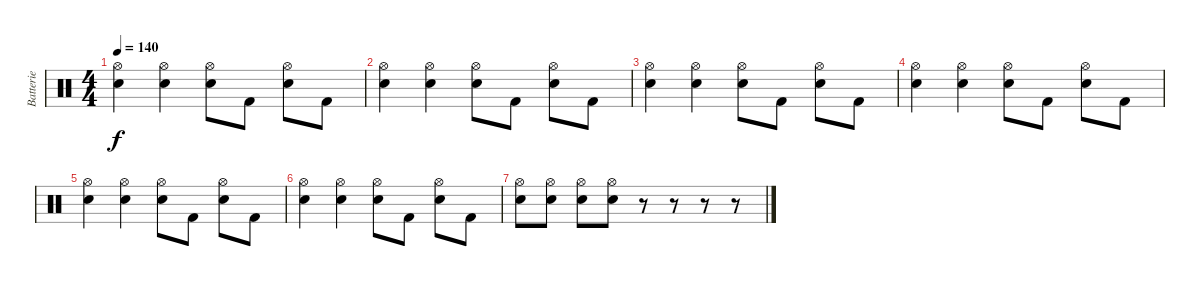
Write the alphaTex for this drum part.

\track ("Batterie" "Batterie") {instrument percussion}
\staff {score}
\articulation defaults
\ts (4 4)
\tempo 140
\clef neutral
\ks c
("Electric Snare (hit)" "Hi-Hat (open)").4{dy f} ("Electric Snare (hit)" "Hi-Hat (open)").4 ("Electric Snare (hit)" "Hi-Hat (open)").8 "Kick (hit) 2".8 ("Electric Snare (hit)" "Hi-Hat (open)").8 "Kick (hit) 2".8 |
("Electric Snare (hit)" "Hi-Hat (open)").4 ("Electric Snare (hit)" "Hi-Hat (open)").4 ("Electric Snare (hit)" "Hi-Hat (open)").8 "Kick (hit) 2".8 ("Electric Snare (hit)" "Hi-Hat (open)").8 "Kick (hit) 2".8 |
("Electric Snare (hit)" "Hi-Hat (open)").4 ("Electric Snare (hit)" "Hi-Hat (open)").4 ("Electric Snare (hit)" "Hi-Hat (open)").8 "Kick (hit) 2".8 ("Electric Snare (hit)" "Hi-Hat (open)").8 "Kick (hit) 2".8 |
("Electric Snare (hit)" "Hi-Hat (open)").4 ("Electric Snare (hit)" "Hi-Hat (open)").4 ("Electric Snare (hit)" "Hi-Hat (open)").8 "Kick (hit) 2".8 ("Electric Snare (hit)" "Hi-Hat (open)").8 "Kick (hit) 2".8 |
("Electric Snare (hit)" "Hi-Hat (open)").4 ("Electric Snare (hit)" "Hi-Hat (open)").4 ("Electric Snare (hit)" "Hi-Hat (open)").8 "Kick (hit) 2".8 ("Electric Snare (hit)" "Hi-Hat (open)").8 "Kick (hit) 2".8 |
("Electric Snare (hit)" "Hi-Hat (open)").4 ("Electric Snare (hit)" "Hi-Hat (open)").4 ("Electric Snare (hit)" "Hi-Hat (open)").8 "Kick (hit) 2".8 ("Electric Snare (hit)" "Hi-Hat (open)").8 "Kick (hit) 2".8 |
("Electric Snare (hit)" "Hi-Hat (open)").8 ("Electric Snare (hit)" "Hi-Hat (open)").8 ("Electric Snare (hit)" "Hi-Hat (open)").8 ("Electric Snare (hit)" "Hi-Hat (open)").8 r.8 r.8 r.8 r.8
